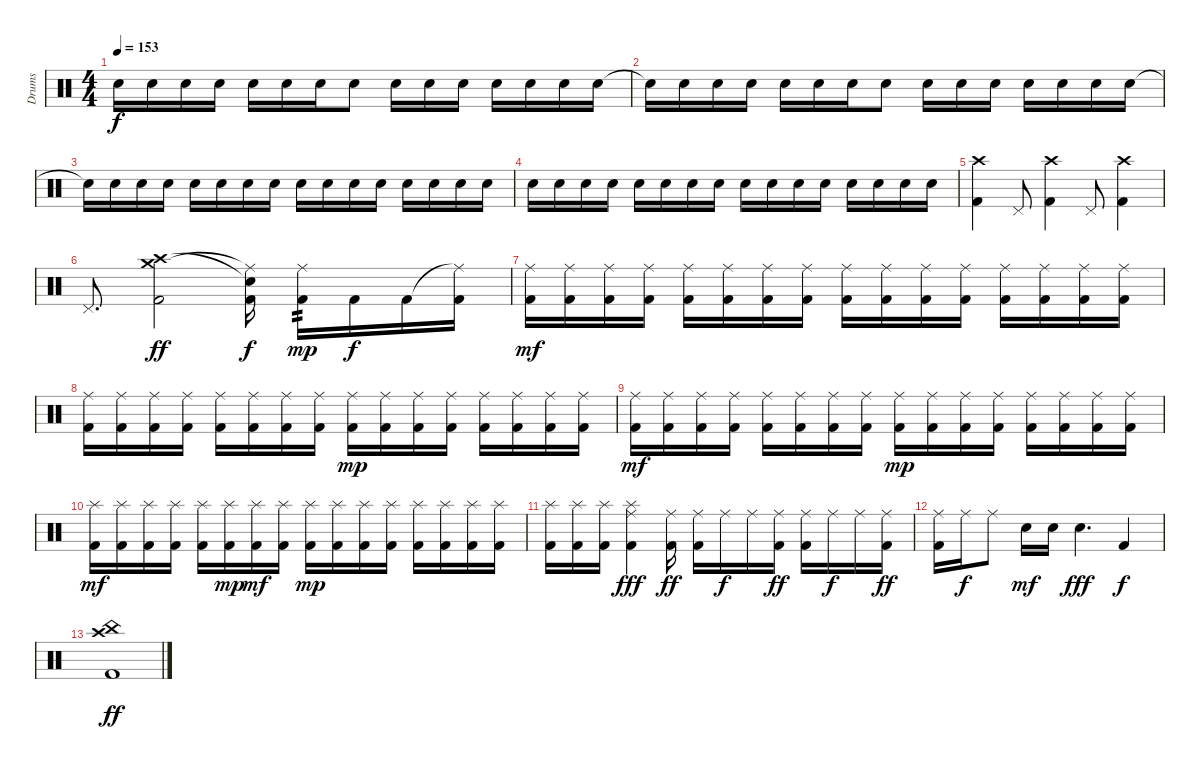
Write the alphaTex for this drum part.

\track ("Drums" "Drums") {instrument percussion}
\staff {score}
\articulation defaults
\ts (4 4)
\tempo 153
\clef neutral
\ks c "Snare (hit)"{t}.16{dy f} "Electric Snare (hit)".16 "Electric Snare (hit)".16 "Electric Snare (hit)".16 "Electric Snare (hit)".16 "Electric Snare (hit)".16 "Electric Snare (hit)".16 "Electric Snare (hit)".8 "Electric Snare (hit)".16 "Electric Snare (hit)".16 "Electric Snare (hit)".16 "Electric Snare (hit)".16 "Electric Snare (hit)".16 "Electric Snare (hit)".16 "Electric Snare (hit)".16
|
"Snare (hit)"{t}.16 "Electric Snare (hit)".16 "Electric Snare (hit)".16 "Electric Snare (hit)".16 "Electric Snare (hit)".16 "Electric Snare (hit)".16 "Electric Snare (hit)".16 "Electric Snare (hit)".8 "Electric Snare (hit)".16 "Electric Snare (hit)".16 "Electric Snare (hit)".16 "Electric Snare (hit)".16 "Electric Snare (hit)".16 "Electric Snare (hit)".16 "Electric Snare (hit)".16 |
"Snare (hit)"{t}.16 "Electric Snare (hit)".16 "Electric Snare (hit)".16 "Electric Snare (hit)".16 "Electric Snare (hit)".16 "Electric Snare (hit)".16 "Electric Snare (hit)".16 "Electric Snare (hit)".16 "Electric Snare (hit)".16 "Electric Snare (hit)".16 "Electric Snare (hit)".16 "Electric Snare (hit)".16 "Electric Snare (hit)".16 "Electric Snare (hit)".16 "Electric Snare (hit)".16 "Electric Snare (hit)".16 |
"Electric Snare (hit)".16 "Electric Snare (hit)".16 "Electric Snare (hit)".16 "Electric Snare (hit)".16 "Electric Snare (hit)".16 "Electric Snare (hit)".16 "Electric Snare (hit)".16 "Electric Snare (hit)".16 "Electric Snare (hit)".16 "Electric Snare (hit)".16 "Electric Snare (hit)".16 "Electric Snare (hit)".16 "Electric Snare (hit)".16 "Electric Snare (hit)".16 "Electric Snare (hit)".16 "Electric Snare (hit)".16 |
("Crash high (hit)" "Kick (hit) 2").4 "Pedal Hi-Hat (hit)".8 ("Crash high (hit)" "Kick (hit) 2").4 "Pedal Hi-Hat (hit)".8 ("Crash high (hit)" "Kick (hit) 2").4 |
"Pedal Hi-Hat (hit)".8{d} ("Crash medium (hit)" "Crash high (hit)" "Kick (hit) 2").2{dy ff} ("Ride (middle)"{t} "Snare (hit)"{t} "Kick (hit) 2").16{dy f} ("Ride (middle)" "Kick (hit) 2").16{tp 2 dy mp} "Kick (hit) 2".16{dy f} "Kick (hit) 2".16 ("Ride (middle)"{t} "Kick (hit) 2").16 |
("Ride (middle)" "Kick (hit) 2").16{dy mf} ("Ride (middle)" "Kick (hit) 2").16 ("Ride (middle)" "Kick (hit) 2").16 ("Ride (middle)" "Kick (hit) 2").16 ("Ride (middle)" "Kick (hit) 2").16 ("Ride (middle)" "Kick (hit) 2").16 ("Ride (middle)" "Kick (hit) 2").16 ("Ride (middle)" "Kick (hit) 2").16 ("Ride (middle)" "Kick (hit) 2").16 ("Ride (middle)" "Kick (hit) 2").16 ("Ride (middle)" "Kick (hit) 2").16 ("Ride (middle)" "Kick (hit) 2").16 ("Ride (middle)" "Kick (hit) 2").16 ("Ride (middle)" "Kick (hit) 2").16 ("Ride (middle)" "Kick (hit) 2").16 ("Ride (middle)" "Kick (hit) 2").16 |
("Ride (middle)" "Kick (hit) 2").16 ("Ride (middle)" "Kick (hit) 2").16 ("Ride (middle)" "Kick (hit) 2").16 ("Ride (middle)" "Kick (hit) 2").16 ("Ride (middle)" "Kick (hit) 2").16 ("Ride (middle)" "Kick (hit) 2").16 ("Ride (middle)" "Kick (hit) 2").16 ("Ride (middle)" "Kick (hit) 2").16 ("Ride (middle)" "Kick (hit) 2").16{dy mp} ("Ride (middle)" "Kick (hit) 2").16 ("Ride (middle)" "Kick (hit) 2").16 ("Ride (middle)" "Kick (hit) 2").16 ("Ride (middle)" "Kick (hit) 2").16 ("Ride (middle)" "Kick (hit) 2").16 ("Ride (middle)" "Kick (hit) 2").16 ("Ride (middle)" "Kick (hit) 2").16 |
("Ride (middle)" "Kick (hit) 2").16{dy mf} ("Ride (middle)" "Kick (hit) 2").16 ("Ride (middle)" "Kick (hit) 2").16 ("Ride (middle)" "Kick (hit) 2").16 ("Ride (middle)" "Kick (hit) 2").16 ("Ride (middle)" "Kick (hit) 2").16 ("Ride (middle)" "Kick (hit) 2").16 ("Ride (middle)" "Kick (hit) 2").16 ("Ride (middle)" "Kick (hit) 2").16{dy mp} ("Ride (middle)" "Kick (hit) 2").16 ("Ride (middle)" "Kick (hit) 2").16 ("Ride (middle)" "Kick (hit) 2").16 ("Ride (middle)" "Kick (hit) 2").16 ("Ride (middle)" "Kick (hit) 2").16 ("Ride (middle)" "Kick (hit) 2").16 ("Ride (middle)" "Kick (hit) 2").16 |
("Splash (hit)" "Kick (hit) 2").16{dy mf} ("Splash (hit)" "Kick (hit) 2").16 ("Splash (hit)" "Kick (hit) 2").16 ("Splash (hit)" "Kick (hit) 2").16 ("Splash (hit)" "Kick (hit) 2").16 ("Splash (hit)" "Kick (hit) 2").16{dy mp} ("Splash (hit)" "Kick (hit) 2").16{dy mf} ("Splash (hit)" "Kick (hit) 2").16 ("Splash (hit)" "Kick (hit) 2").16{dy mp} ("Splash (hit)" "Kick (hit) 2").16 ("Splash (hit)" "Kick (hit) 2").16 ("Splash (hit)" "Kick (hit) 2").16 ("Splash (hit)" "Kick (hit) 2").16 ("Splash (hit)" "Kick (hit) 2").16 ("Splash (hit)" "Kick (hit) 2").16 ("Splash (hit)" "Kick (hit) 2").16 |
("Splash (hit)" "Kick (hit) 2").16 ("Splash (hit)" "Kick (hit) 2").16 ("Splash (hit)" "Kick (hit) 2").16 ("Ride (middle)" "Splash (hit)" "Kick (hit) 2").4{dy fff} ("Ride (middle)" "Kick (hit) 2").16{dy ff} ("Ride (middle)" "Kick (hit) 2").16 "Ride (middle)".16{dy f} "Ride (middle)".16 ("Ride (middle)" "Kick (hit) 2").16{dy ff} ("Ride (middle)" "Kick (hit) 2").16 "Ride (middle)".16{dy f} "Ride (middle)".16 ("Ride (middle)" "Kick (hit) 2").16{dy ff} |
("Ride (middle)" "Kick (hit) 2").16 "Ride (middle)".16{dy f} "Ride (middle)".8 "Electric Snare (hit)".16{dy mf} "Electric Snare (hit)".16 "Electric Snare (hit)".4{d dy fff} "Kick (hit) 2".4{dy f} |
("China (hit)" "Crash high (hit)" "Kick (hit) 2").1{dy ff}
